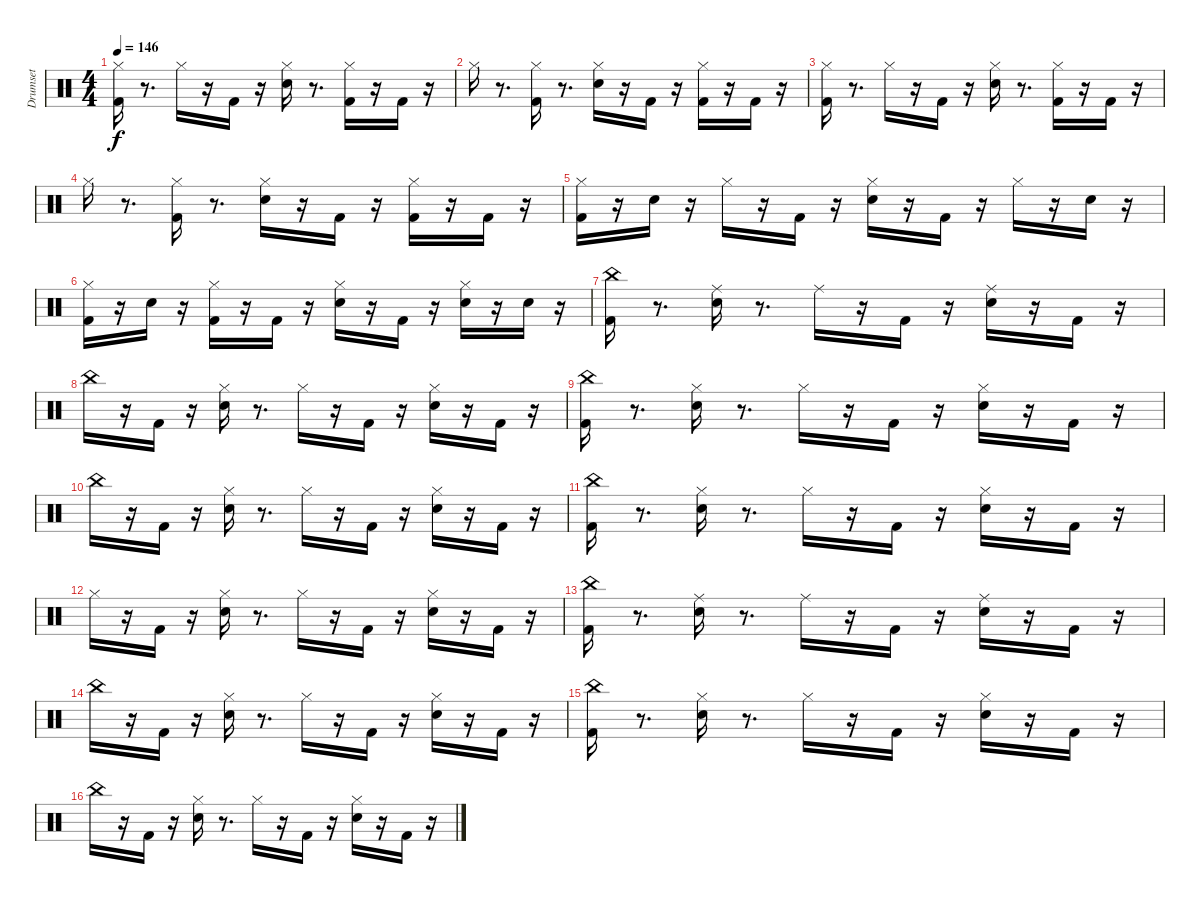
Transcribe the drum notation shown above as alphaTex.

\track ("Drumset" "Drumset") {instrument percussion}
\staff {score}
\articulation defaults
\ts (4 4)
\tempo 146
\clef neutral
\ks c
("Kick (hit) 2" "Hi-Hat (closed)").16{dy f} r.8{d} "Hi-Hat (closed)".16 r.16 "Kick (hit) 2".16 r.16 ("Electric Snare (hit)" "Hi-Hat (closed)").16 r.8{d} ("Kick (hit) 2" "Hi-Hat (closed)").16 r.16 "Kick (hit) 2".16 r.16 |
"Hi-Hat (closed)".16 r.8{d} ("Kick (hit) 2" "Hi-Hat (closed)").16 r.8{d} ("Electric Snare (hit)" "Hi-Hat (closed)").16 r.16 "Kick (hit) 2".16 r.16 ("Kick (hit) 2" "Hi-Hat (closed)").16 r.16 "Kick (hit) 2".16 r.16 |
("Kick (hit) 2" "Hi-Hat (closed)").16 r.8{d} "Hi-Hat (closed)".16 r.16 "Kick (hit) 2".16 r.16 ("Electric Snare (hit)" "Hi-Hat (closed)").16 r.8{d} ("Kick (hit) 2" "Hi-Hat (closed)").16 r.16 "Kick (hit) 2".16 r.16 |
"Hi-Hat (closed)".16 r.8{d} ("Kick (hit) 2" "Hi-Hat (closed)").16 r.8{d} ("Electric Snare (hit)" "Hi-Hat (closed)").16 r.16 "Kick (hit) 2".16 r.16 ("Kick (hit) 2" "Hi-Hat (closed)").16 r.16 "Kick (hit) 2".16 r.16 |
("Kick (hit) 2" "Hi-Hat (closed)").16 r.16 "Electric Snare (hit)".16 r.16 "Hi-Hat (closed)".16 r.16 "Kick (hit) 2".16 r.16 ("Electric Snare (hit)" "Hi-Hat (closed)").16 r.16 "Kick (hit) 2".16 r.16 "Hi-Hat (closed)".16 r.16 "Electric Snare (hit)".16 r.16 |
("Kick (hit) 2" "Hi-Hat (closed)").16 r.16 "Electric Snare (hit)".16 r.16 ("Kick (hit) 2" "Hi-Hat (closed)").16 r.16 "Kick (hit) 2".16 r.16 ("Electric Snare (hit)" "Hi-Hat (closed)").16 r.16 "Kick (hit) 2".16 r.16 ("Electric Snare (hit)" "Hi-Hat (closed)").16 r.16 "Electric Snare (hit)".16 r.16 |
("Kick (hit) 2" "China (hit)").16 r.8{d} ("Electric Snare (hit)" "Ride (middle)").16 r.8{d} "Ride (middle)".16 r.16 "Kick (hit) 2".16 r.16 ("Electric Snare (hit)" "Ride (middle)").16 r.16 "Kick (hit) 2".16 r.16 |
"China (hit)".16 r.16 "Kick (hit) 2".16 r.16 ("Electric Snare (hit)" "Hi-Hat (closed)").16 r.8{d} "Hi-Hat (closed)".16 r.16 "Kick (hit) 2".16 r.16 ("Electric Snare (hit)" "Hi-Hat (closed)").16 r.16 "Kick (hit) 2".16 r.16 |
("Kick (hit) 2" "China (hit)").16 r.8{d} ("Electric Snare (hit)" "Hi-Hat (closed)").16 r.8{d} "Hi-Hat (closed)".16 r.16 "Kick (hit) 2".16 r.16 ("Electric Snare (hit)" "Hi-Hat (closed)").16 r.16 "Kick (hit) 2".16 r.16 |
"China (hit)".16 r.16 "Kick (hit) 2".16 r.16 ("Electric Snare (hit)" "Hi-Hat (closed)").16 r.8{d} "Hi-Hat (closed)".16 r.16 "Kick (hit) 2".16 r.16 ("Electric Snare (hit)" "Hi-Hat (closed)").16 r.16 "Kick (hit) 2".16 r.16 |
("Kick (hit) 2" "China (hit)").16 r.8{d} ("Electric Snare (hit)" "Hi-Hat (closed)").16 r.8{d} "Hi-Hat (closed)".16 r.16 "Kick (hit) 2".16 r.16 ("Electric Snare (hit)" "Hi-Hat (closed)").16 r.16 "Kick (hit) 2".16 r.16 |
"Hi-Hat (closed)".16 r.16 "Kick (hit) 2".16 r.16 ("Electric Snare (hit)" "Hi-Hat (closed)").16 r.8{d} "Hi-Hat (closed)".16 r.16 "Kick (hit) 2".16 r.16 ("Electric Snare (hit)" "Hi-Hat (closed)").16 r.16 "Kick (hit) 2".16 r.16 |
("Kick (hit) 2" "China (hit)").16 r.8{d} ("Electric Snare (hit)" "Ride (middle)").16 r.8{d} "Ride (middle)".16 r.16 "Kick (hit) 2".16 r.16 ("Electric Snare (hit)" "Ride (middle)").16 r.16 "Kick (hit) 2".16 r.16 |
"China (hit)".16 r.16 "Kick (hit) 2".16 r.16 ("Electric Snare (hit)" "Hi-Hat (closed)").16 r.8{d} "Hi-Hat (closed)".16 r.16 "Kick (hit) 2".16 r.16 ("Electric Snare (hit)" "Hi-Hat (closed)").16 r.16 "Kick (hit) 2".16 r.16 |
("Kick (hit) 2" "China (hit)").16 r.8{d} ("Electric Snare (hit)" "Hi-Hat (closed)").16 r.8{d} "Hi-Hat (closed)".16 r.16 "Kick (hit) 2".16 r.16 ("Electric Snare (hit)" "Hi-Hat (closed)").16 r.16 "Kick (hit) 2".16 r.16 |
"China (hit)".16 r.16 "Kick (hit) 2".16 r.16 ("Electric Snare (hit)" "Hi-Hat (closed)").16 r.8{d} "Hi-Hat (closed)".16 r.16 "Kick (hit) 2".16 r.16 ("Electric Snare (hit)" "Hi-Hat (closed)").16 r.16 "Kick (hit) 2".16 r.16
